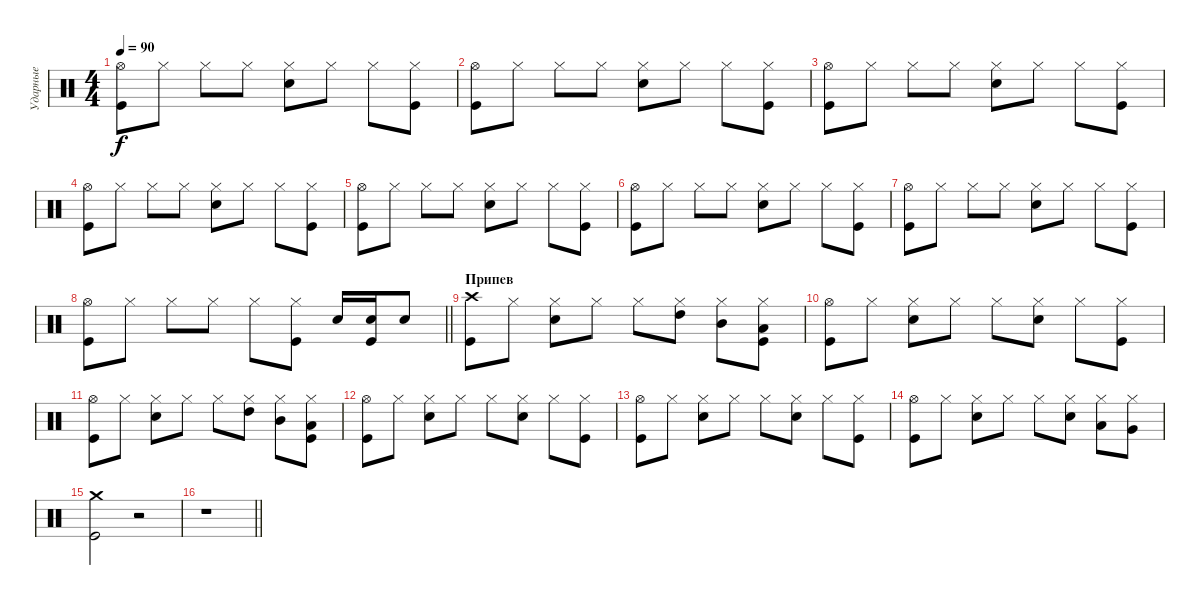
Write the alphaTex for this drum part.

\track ("Ударные" "Ударные") {instrument percussion}
\staff {score}
\articulation defaults
\ts (4 4)
\tempo 90
\clef neutral
\ks c
("Hi-Hat (open)" "Kick (hit)").8{dy f} "Hi-Hat (closed)".8 "Hi-Hat (closed)".8 "Hi-Hat (closed)".8 ("Hi-Hat (closed)" "Electric Snare (hit)").8 "Hi-Hat (closed)".8 "Hi-Hat (closed)".8 ("Hi-Hat (closed)" "Kick (hit)").8 |
("Hi-Hat (open)" "Kick (hit)").8 "Hi-Hat (closed)".8 "Hi-Hat (closed)".8 "Hi-Hat (closed)".8 ("Hi-Hat (closed)" "Electric Snare (hit)").8 "Hi-Hat (closed)".8 "Hi-Hat (closed)".8 ("Hi-Hat (closed)" "Kick (hit)").8 |
("Hi-Hat (open)" "Kick (hit)").8 "Hi-Hat (closed)".8 "Hi-Hat (closed)".8 "Hi-Hat (closed)".8 ("Hi-Hat (closed)" "Electric Snare (hit)").8 "Hi-Hat (closed)".8 "Hi-Hat (closed)".8 ("Hi-Hat (closed)" "Kick (hit)").8 |
("Hi-Hat (open)" "Kick (hit)").8 "Hi-Hat (closed)".8 "Hi-Hat (closed)".8 "Hi-Hat (closed)".8 ("Hi-Hat (closed)" "Electric Snare (hit)").8 "Hi-Hat (closed)".8 "Hi-Hat (closed)".8 ("Hi-Hat (closed)" "Kick (hit)").8 |
("Hi-Hat (open)" "Kick (hit)").8 "Hi-Hat (closed)".8 "Hi-Hat (closed)".8 "Hi-Hat (closed)".8 ("Hi-Hat (closed)" "Electric Snare (hit)").8 "Hi-Hat (closed)".8 "Hi-Hat (closed)".8 ("Hi-Hat (closed)" "Kick (hit)").8 |
("Hi-Hat (open)" "Kick (hit)").8 "Hi-Hat (closed)".8 "Hi-Hat (closed)".8 "Hi-Hat (closed)".8 ("Hi-Hat (closed)" "Electric Snare (hit)").8 "Hi-Hat (closed)".8 "Hi-Hat (closed)".8 ("Hi-Hat (closed)" "Kick (hit)").8 |
("Hi-Hat (open)" "Kick (hit)").8 "Hi-Hat (closed)".8 "Hi-Hat (closed)".8 "Hi-Hat (closed)".8 ("Hi-Hat (closed)" "Electric Snare (hit)").8 "Hi-Hat (closed)".8 "Hi-Hat (closed)".8 ("Hi-Hat (closed)" "Kick (hit)").8 |
\barLineRight lightlight
("Hi-Hat (open)" "Kick (hit)").8 "Hi-Hat (closed)".8 "Hi-Hat (closed)".8 "Hi-Hat (closed)".8 "Hi-Hat (closed)".8 ("Hi-Hat (closed)" "Kick (hit)").8 "Electric Snare (hit)".16 ("Electric Snare (hit)" "Kick (hit)").16 "Electric Snare (hit)".8 |
\section ("" "Припев")
("Crash high (hit)" "Kick (hit)").8 "Hi-Hat (closed)".8 ("Hi-Hat (closed)" "Electric Snare (hit)").8 "Hi-Hat (closed)".8 "Hi-Hat (closed)".8 ("Hi-Hat (closed)" "High Tom (hit)").8 ("Hi-Hat (closed)" "Mid Tom (hit)").8 ("Hi-Hat (closed)" "Kick (hit)" "Low Tom (hit)").8 |
("Hi-Hat (open)" "Kick (hit)").8 "Hi-Hat (closed)".8 ("Hi-Hat (closed)" "Electric Snare (hit)").8 "Hi-Hat (closed)".8 "Hi-Hat (closed)".8 ("Hi-Hat (closed)" "Electric Snare (hit)").8 "Hi-Hat (closed)".8 ("Hi-Hat (closed)" "Kick (hit)").8 |
("Hi-Hat (open)" "Kick (hit)").8 "Hi-Hat (closed)".8 ("Hi-Hat (closed)" "Electric Snare (hit)").8 "Hi-Hat (closed)".8 "Hi-Hat (closed)".8 ("Hi-Hat (closed)" "High Tom (hit)").8 ("Hi-Hat (closed)" "Mid Tom (hit)").8 ("Hi-Hat (closed)" "Kick (hit)" "Low Tom (hit)").8 |
("Hi-Hat (open)" "Kick (hit)").8 "Hi-Hat (closed)".8 ("Hi-Hat (closed)" "Electric Snare (hit)").8 "Hi-Hat (closed)".8 "Hi-Hat (closed)".8 ("Hi-Hat (closed)" "Electric Snare (hit)").8 "Hi-Hat (closed)".8 ("Hi-Hat (closed)" "Kick (hit)").8 |
("Hi-Hat (open)" "Kick (hit)").8 "Hi-Hat (closed)".8 ("Hi-Hat (closed)" "Electric Snare (hit)").8 "Hi-Hat (closed)".8 "Hi-Hat (closed)".8 ("Hi-Hat (closed)" "Electric Snare (hit)").8 "Hi-Hat (closed)".8 ("Hi-Hat (closed)" "Kick (hit)").8 |
("Hi-Hat (open)" "Kick (hit)").8 "Hi-Hat (closed)".8 ("Hi-Hat (closed)" "Electric Snare (hit)").8 "Hi-Hat (closed)".8 "Hi-Hat (closed)".8 ("Hi-Hat (closed)" "Electric Snare (hit)").8 ("Hi-Hat (closed)" "Low Tom (hit)").8 ("Hi-Hat (closed)" "Very Low Tom (hit)").8 |
("Crash medium (hit)" "Kick (hit)").2 r.2 |
\barLineRight lightlight
r.1
